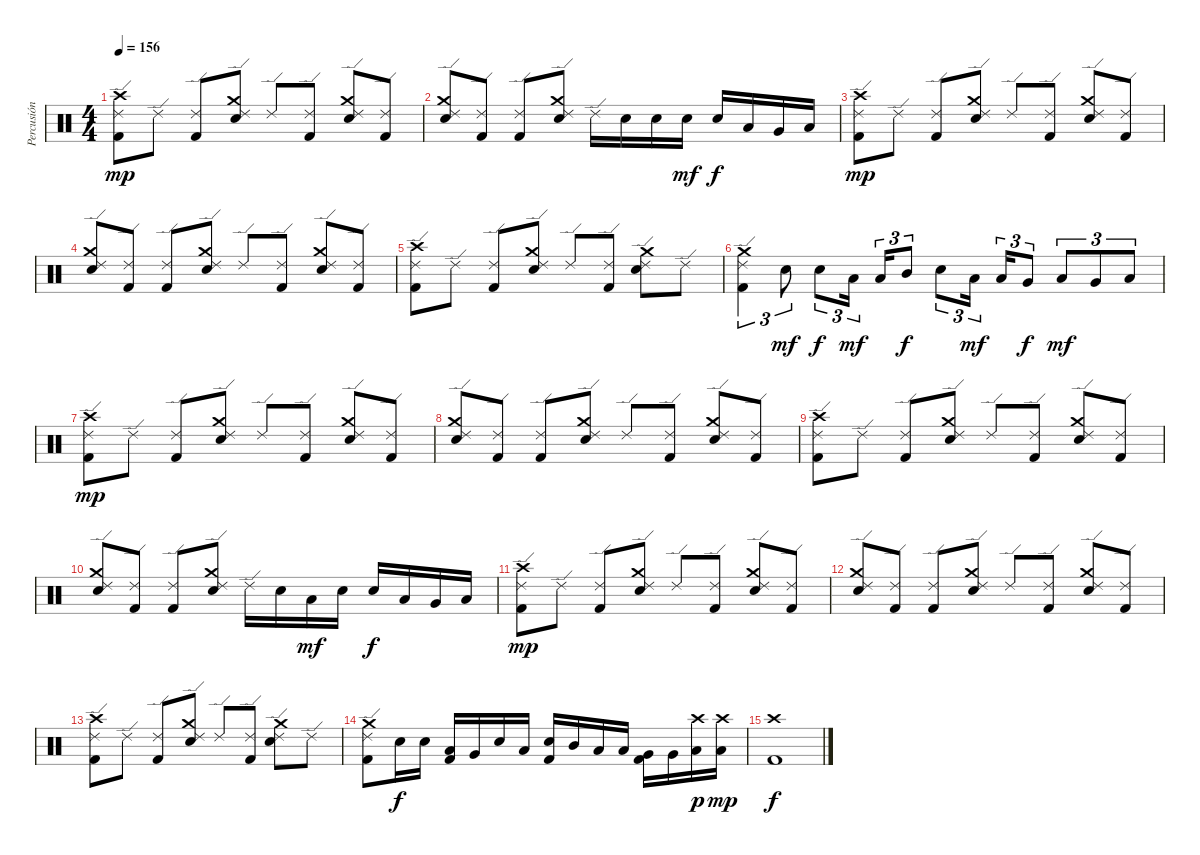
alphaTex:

\track ("Percusión" "Percusión") {instrument percussion}
\staff {score}
\articulation defaults
\ts (4 4)
\tempo 156
\clef neutral
\ks c
("Crash high (hit)" "Ride (edge) 2" "Kick (hit) 2").8{dy mp} "Ride (edge) 2".8 ("Ride (edge) 2" "Kick (hit) 2").8 ("Crash medium (hit)" "Ride (edge) 2" "Electric Snare (hit)").8 "Ride (edge) 2".8 ("Ride (edge) 2" "Kick (hit) 2").8 ("Crash medium (hit)" "Ride (edge) 2" "Electric Snare (hit)").8 ("Ride (edge) 2" "Kick (hit) 2").8 |
("Crash medium (hit)" "Ride (edge) 2" "Electric Snare (hit)").8 ("Ride (edge) 2" "Kick (hit) 2").8 ("Ride (edge) 2" "Kick (hit) 2").8 ("Crash medium (hit)" "Ride (edge) 2" "Electric Snare (hit)").8 "Ride (edge) 2".16 "Electric Snare (hit)".16 "Electric Snare (hit)".16 "Electric Snare (hit)".16{dy mf} "Electric Snare (hit)".16{dy f} "Low Tom (hit)".16 "Very Low Tom (hit)".16 "Low Floor Tom (hit)".16 |
("Crash high (hit)" "Ride (edge) 2" "Kick (hit) 2").8{dy mp} "Ride (edge) 2".8 ("Ride (edge) 2" "Kick (hit) 2").8 ("Crash medium (hit)" "Ride (edge) 2" "Electric Snare (hit)").8 "Ride (edge) 2".8 ("Ride (edge) 2" "Kick (hit) 2").8 ("Crash medium (hit)" "Ride (edge) 2" "Electric Snare (hit)").8 ("Ride (edge) 2" "Kick (hit) 2").8 |
("Crash medium (hit)" "Ride (edge) 2" "Electric Snare (hit)").8 ("Ride (edge) 2" "Kick (hit) 2").8 ("Ride (edge) 2" "Kick (hit) 2").8 ("Crash medium (hit)" "Ride (edge) 2" "Electric Snare (hit)").8 "Ride (edge) 2".8 ("Ride (edge) 2" "Kick (hit) 2").8 ("Crash medium (hit)" "Ride (edge) 2" "Electric Snare (hit)").8 ("Ride (edge) 2" "Kick (hit) 2").8 |
("Crash high (hit)" "Ride (edge) 2" "Kick (hit) 2").8 "Ride (edge) 2".8 ("Ride (edge) 2" "Kick (hit) 2").8 ("Crash medium (hit)" "Ride (edge) 2" "Electric Snare (hit)").8 "Ride (edge) 2".8 ("Ride (edge) 2" "Kick (hit) 2").8 ("Crash medium (hit)" "Ride (edge) 2" "Electric Snare (hit)").8 "Ride (edge) 2".8 |
("Crash medium (hit)" "Ride (edge) 2" "Kick (hit) 2").4{tu (3 2)} "Electric Snare (hit)".8{tu (3 2) dy mf} "Electric Snare (hit)".8{tu (3 2) dy f} "Low Tom (hit)".16{tu (3 2) dy mf beam splitsecondary} "Low Tom (hit)".16{tu (3 2)} "Mid Tom (hit)".8{tu (3 2) dy f} "Electric Snare (hit)".8{tu (3 2)} "Low Tom (hit)".16{tu (3 2) dy mf beam splitsecondary} "Low Tom (hit)".16{tu (3 2)} "Very Low Tom (hit)".8{tu (3 2) dy f} "Low Tom (hit)".8{tu (3 2) dy mf} "Very Low Tom (hit)".8{tu (3 2)} "Low Floor Tom (hit)".8{tu (3 2)} |
("Crash high (hit)" "Ride (edge) 2" "Kick (hit) 2").8{dy mp} "Ride (edge) 2".8 ("Ride (edge) 2" "Kick (hit) 2").8 ("Crash medium (hit)" "Ride (edge) 2" "Electric Snare (hit)").8 "Ride (edge) 2".8 ("Ride (edge) 2" "Kick (hit) 2").8 ("Crash medium (hit)" "Ride (edge) 2" "Electric Snare (hit)").8 ("Ride (edge) 2" "Kick (hit) 2").8 |
("Crash medium (hit)" "Ride (edge) 2" "Electric Snare (hit)").8 ("Ride (edge) 2" "Kick (hit) 2").8 ("Ride (edge) 2" "Kick (hit) 2").8 ("Crash medium (hit)" "Ride (edge) 2" "Electric Snare (hit)").8 "Ride (edge) 2".8 ("Ride (edge) 2" "Kick (hit) 2").8 ("Crash medium (hit)" "Ride (edge) 2" "Electric Snare (hit)").8 ("Ride (edge) 2" "Kick (hit) 2").8 |
("Crash high (hit)" "Ride (edge) 2" "Kick (hit) 2").8 "Ride (edge) 2".8 ("Ride (edge) 2" "Kick (hit) 2").8 ("Crash medium (hit)" "Ride (edge) 2" "Electric Snare (hit)").8 "Ride (edge) 2".8 ("Ride (edge) 2" "Kick (hit) 2").8 ("Crash medium (hit)" "Ride (edge) 2" "Electric Snare (hit)").8 ("Ride (edge) 2" "Kick (hit) 2").8 |
("Crash medium (hit)" "Ride (edge) 2" "Electric Snare (hit)").8 ("Ride (edge) 2" "Kick (hit) 2").8 ("Ride (edge) 2" "Kick (hit) 2").8 ("Crash medium (hit)" "Ride (edge) 2" "Electric Snare (hit)").8 "Ride (edge) 2".16 "Electric Snare (hit)".16 "Low Tom (hit)".16{dy mf} "Electric Snare (hit)".16 "Electric Snare (hit)".16{dy f} "Low Tom (hit)".16 "Very Low Tom (hit)".16 "Low Floor Tom (hit)".16 |
("Crash high (hit)" "Ride (edge) 2" "Kick (hit) 2").8{dy mp} "Ride (edge) 2".8 ("Ride (edge) 2" "Kick (hit) 2").8 ("Crash medium (hit)" "Ride (edge) 2" "Electric Snare (hit)").8 "Ride (edge) 2".8 ("Ride (edge) 2" "Kick (hit) 2").8 ("Crash medium (hit)" "Ride (edge) 2" "Electric Snare (hit)").8 ("Ride (edge) 2" "Kick (hit) 2").8 |
("Crash medium (hit)" "Ride (edge) 2" "Electric Snare (hit)").8 ("Ride (edge) 2" "Kick (hit) 2").8 ("Ride (edge) 2" "Kick (hit) 2").8 ("Crash medium (hit)" "Ride (edge) 2" "Electric Snare (hit)").8 "Ride (edge) 2".8 ("Ride (edge) 2" "Kick (hit) 2").8 ("Crash medium (hit)" "Ride (edge) 2" "Electric Snare (hit)").8 ("Ride (edge) 2" "Kick (hit) 2").8 |
("Crash high (hit)" "Ride (edge) 2" "Kick (hit) 2").8 "Ride (edge) 2".8 ("Ride (edge) 2" "Kick (hit) 2").8 ("Crash medium (hit)" "Ride (edge) 2" "Electric Snare (hit)").8 "Ride (edge) 2".8 ("Ride (edge) 2" "Kick (hit) 2").8 ("Crash medium (hit)" "Ride (edge) 2" "Electric Snare (hit)").8 "Ride (edge) 2".8 |
("Crash medium (hit)" "Ride (edge) 2" "Kick (hit) 2").8 "Electric Snare (hit)".16{dy f} "Electric Snare (hit)".16 ("Low Tom (hit)" "Kick (hit) 2").16 "Very Low Tom (hit)".16 "Electric Snare (hit)".16 "Low Tom (hit)".16 ("Electric Snare (hit)" "Kick (hit) 2").16 "Mid Tom (hit)".16 "Low Tom (hit)".16 "Low Tom (hit)".16 ("Very Low Tom (hit)" "Kick (hit) 2").16 "Very Low Tom (hit)".16 ("Crash high (hit)" "Low Floor Tom (hit)").16{dy p} ("Crash high (hit)" "Low Floor Tom (hit)").16{dy mp} |
("Crash high (hit)" "Kick (hit) 2").1{dy f}
